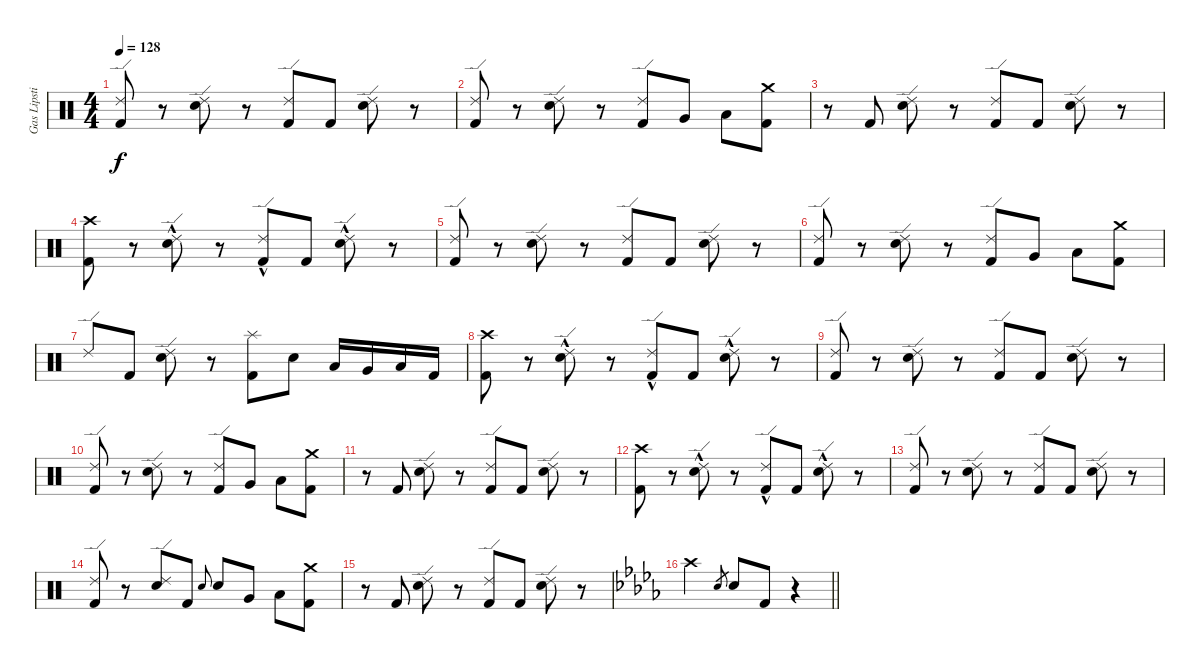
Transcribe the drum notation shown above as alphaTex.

\track ("Gas Lipstick (Drums)" "Gas Lipsti") {instrument percussion}
\staff {score}
\articulation defaults
\ts (4 4)
\tempo 128
\clef neutral
\ks c
("Ride (edge) 2" "Kick (hit) 2").8{dy f} r.8 ("Ride (edge) 2" "Snare (hit) 2").8 r.8 ("Ride (edge) 2" "Kick (hit) 2").8 "Kick (hit) 2".8 ("Ride (edge) 2" "Snare (hit) 2").8 r.8 |
("Ride (edge) 2" "Kick (hit) 2").8 r.8 ("Ride (edge) 2" "Snare (hit) 2").8 r.8 ("Ride (edge) 2" "Kick (hit) 2").8 "Very Low Tom (hit)".8 "Low Floor Tom (hit)".8 ("Crash medium (hit)" "Kick (hit) 2").8 |
r.8 "Kick (hit) 2".8 ("Ride (edge) 2" "Snare (hit) 2").8 r.8 ("Ride (edge) 2" "Kick (hit) 2").8 "Kick (hit) 2".8 ("Ride (edge) 2" "Snare (hit) 2").8 r.8 |
("Crash high (hit)" "Kick (hit) 2").8 r.8 ("Ride (edge) 2"{hac} "Snare (hit) 2").8 r.8 ("Ride (edge) 2"{hac} "Kick (hit) 2").8 "Kick (hit) 2".8 ("Ride (edge) 2"{hac} "Snare (hit) 2").8 r.8 |
("Ride (edge) 2" "Kick (hit) 2").8 r.8 ("Ride (edge) 2" "Snare (hit) 2").8 r.8 ("Ride (edge) 2" "Kick (hit) 2").8 "Kick (hit) 2".8 ("Ride (edge) 2" "Snare (hit) 2").8 r.8 |
("Ride (edge) 2" "Kick (hit) 2").8 r.8 ("Ride (edge) 2" "Snare (hit) 2").8 r.8 ("Ride (edge) 2" "Kick (hit) 2").8 "Very Low Tom (hit)".8 "Low Floor Tom (hit)".8 ("Crash medium (hit)" "Kick (hit) 2").8 |
"Ride (edge) 2".8 "Kick (hit) 2".8 ("Ride (edge) 2" "Snare (hit) 2").8 r.8 ("Splash (hit)" "Kick (hit) 2").8 "Snare (hit) 2".8 "Low Tom (hit)".16 "Very Low Tom (hit)".16 "Low Floor Tom (hit)".16 "Kick (hit) 2".16 |
("Crash high (hit)" "Kick (hit) 2").8 r.8 ("Ride (edge) 2"{hac} "Snare (hit) 2").8 r.8 ("Ride (edge) 2"{hac} "Kick (hit) 2").8 "Kick (hit) 2".8 ("Ride (edge) 2"{hac} "Snare (hit) 2").8 r.8 |
("Ride (edge) 2" "Kick (hit) 2").8 r.8 ("Ride (edge) 2" "Snare (hit) 2").8 r.8 ("Ride (edge) 2" "Kick (hit) 2").8 "Kick (hit) 2".8 ("Ride (edge) 2" "Snare (hit) 2").8 r.8 |
("Ride (edge) 2" "Kick (hit) 2").8 r.8 ("Ride (edge) 2" "Snare (hit) 2").8 r.8 ("Ride (edge) 2" "Kick (hit) 2").8 "Very Low Tom (hit)".8 "Low Floor Tom (hit)".8 ("Crash medium (hit)" "Kick (hit) 2").8 |
r.8 "Kick (hit) 2".8 ("Ride (edge) 2" "Snare (hit) 2").8 r.8 ("Ride (edge) 2" "Kick (hit) 2").8 "Kick (hit) 2".8 ("Ride (edge) 2" "Snare (hit) 2").8 r.8 |
("Crash high (hit)" "Kick (hit) 2").8 r.8 ("Ride (edge) 2"{hac} "Snare (hit) 2").8 r.8 ("Ride (edge) 2"{hac} "Kick (hit) 2").8 "Kick (hit) 2".8 ("Ride (edge) 2"{hac} "Snare (hit) 2").8 r.8 |
("Ride (edge) 2" "Kick (hit) 2").8 r.8 ("Ride (edge) 2" "Snare (hit) 2").8 r.8 ("Ride (edge) 2" "Kick (hit) 2").8 "Kick (hit) 2".8 ("Ride (edge) 2" "Snare (hit) 2").8 r.8 |
("Ride (edge) 2" "Kick (hit) 2").8 r.8 ("Ride (edge) 2" "Snare (hit) 2").8 "Kick (hit) 2".8 "Snare (hit) 2".8{gr onbeat} "Snare (hit) 2".8 "Very Low Tom (hit)".8 "Low Floor Tom (hit)".8 ("Crash medium (hit)" "Kick (hit) 2").8 |
r.8 "Kick (hit) 2".8 ("Ride (edge) 2" "Snare (hit) 2").8 r.8 ("Ride (edge) 2" "Kick (hit) 2").8 "Kick (hit) 2".8 ("Ride (edge) 2" "Snare (hit) 2").8 r.8 |
\barLineRight lightlight
\ks db "Crash high (hit)".2 "Snare (hit) 2".8{gr} "Snare (hit) 2".8 "Kick (hit) 2".8
r.4
